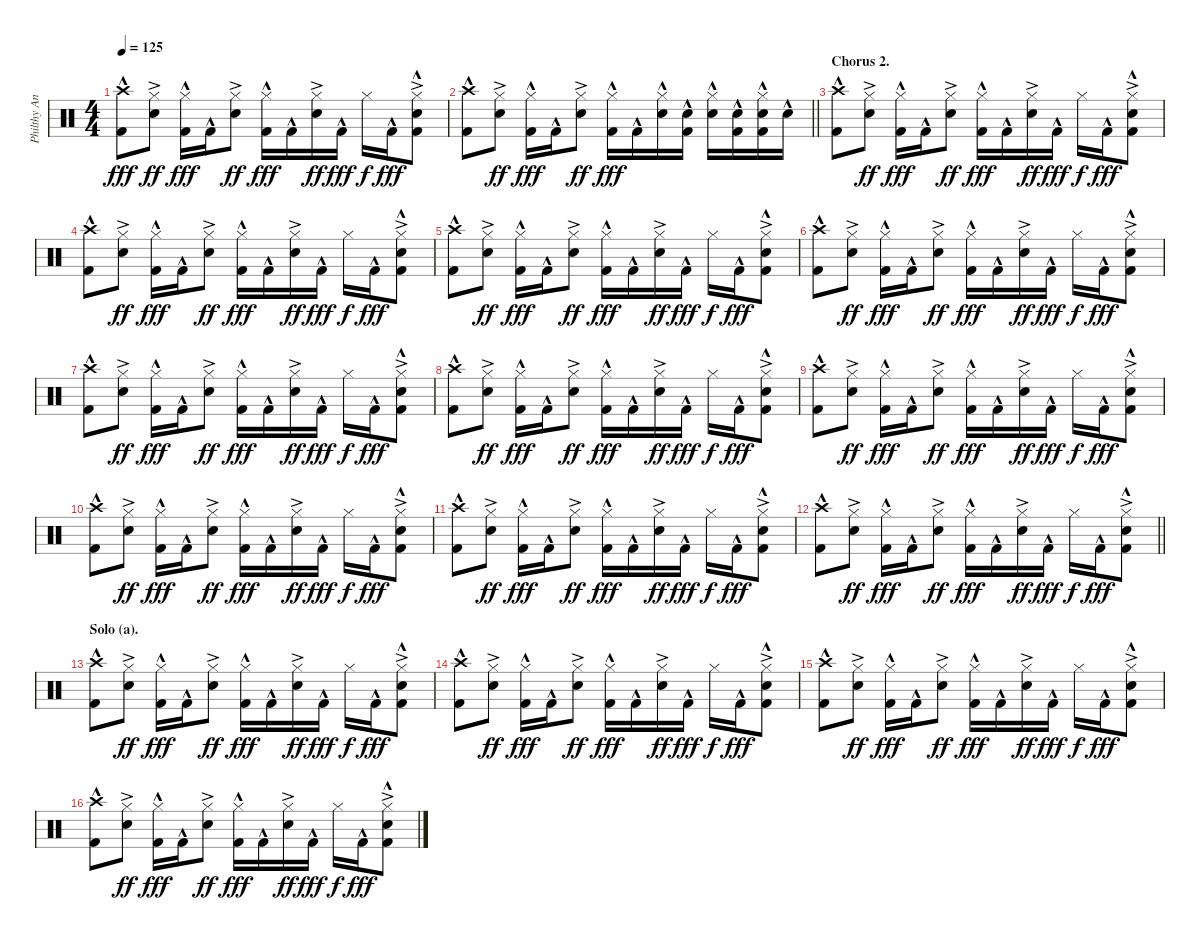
\track ("Philthy Animal Taylor" "Philthy An") {instrument percussion}
\staff {score}
\articulation defaults
\ts (4 4)
\tempo 125
\clef neutral
\ks c
("Crash high (hit)" "Kick (hit) 2"{hac}).8{dy fff} ("Hi-Hat (closed)" "Electric Snare (hit)"{ac}).8{dy ff} ("Hi-Hat (closed)" "Kick (hit) 2"{hac}).16{dy fff} "Kick (hit) 2"{hac}.16 ("Hi-Hat (closed)" "Electric Snare (hit)"{ac}).8{dy ff} ("Hi-Hat (closed)" "Kick (hit) 2"{hac}).16{dy fff} "Kick (hit) 2"{hac}.16 ("Hi-Hat (closed)" "Electric Snare (hit)"{ac}).16{dy ff} "Kick (hit) 2"{hac}.16{dy fff} "Hi-Hat (closed)".16{dy f} "Kick (hit) 2"{hac}.16{dy fff} ("Hi-Hat (closed)" "Electric Snare (hit)"{ac} "Kick (hit) 2"{hac}).8 |
\barLineRight lightlight
("Crash high (hit)" "Kick (hit) 2"{hac}).8 ("Hi-Hat (closed)" "Electric Snare (hit)"{ac}).8{dy ff} ("Hi-Hat (closed)" "Kick (hit) 2"{hac}).16{dy fff} "Kick (hit) 2"{hac}.16 ("Hi-Hat (closed)" "Electric Snare (hit)"{ac}).8{dy ff} ("Hi-Hat (closed)" "Kick (hit) 2"{hac}).16{dy fff} "Kick (hit) 2"{hac}.16 ("Hi-Hat (closed)" "Electric Snare (hit)"{hac}).16 ("Electric Snare (hit)"{hac} "Kick (hit) 2"{hac}).16 ("Hi-Hat (closed)" "Electric Snare (hit)"{hac}).16 ("Electric Snare (hit)"{hac} "Kick (hit) 2"{hac}).16 ("Hi-Hat (closed)" "Electric Snare (hit)"{hac} "Kick (hit) 2"{hac}).16 "Electric Snare (hit)"{hac}.16 |
\section ("" "Chorus 2.")
("Crash high (hit)" "Kick (hit) 2"{hac}).8 ("Hi-Hat (closed)" "Electric Snare (hit)"{ac}).8{dy ff} ("Hi-Hat (closed)" "Kick (hit) 2"{hac}).16{dy fff} "Kick (hit) 2"{hac}.16 ("Hi-Hat (closed)" "Electric Snare (hit)"{ac}).8{dy ff} ("Hi-Hat (closed)" "Kick (hit) 2"{hac}).16{dy fff} "Kick (hit) 2"{hac}.16 ("Hi-Hat (closed)" "Electric Snare (hit)"{ac}).16{dy ff} "Kick (hit) 2"{hac}.16{dy fff} "Hi-Hat (closed)".16{dy f} "Kick (hit) 2"{hac}.16{dy fff} ("Hi-Hat (closed)" "Electric Snare (hit)"{ac} "Kick (hit) 2"{hac}).8 |
("Crash high (hit)" "Kick (hit) 2"{hac}).8 ("Hi-Hat (closed)" "Electric Snare (hit)"{ac}).8{dy ff} ("Hi-Hat (closed)" "Kick (hit) 2"{hac}).16{dy fff} "Kick (hit) 2"{hac}.16 ("Hi-Hat (closed)" "Electric Snare (hit)"{ac}).8{dy ff} ("Hi-Hat (closed)" "Kick (hit) 2"{hac}).16{dy fff} "Kick (hit) 2"{hac}.16 ("Hi-Hat (closed)" "Electric Snare (hit)"{ac}).16{dy ff} "Kick (hit) 2"{hac}.16{dy fff} "Hi-Hat (closed)".16{dy f} "Kick (hit) 2"{hac}.16{dy fff} ("Hi-Hat (closed)" "Electric Snare (hit)"{ac} "Kick (hit) 2"{hac}).8 |
("Crash high (hit)" "Kick (hit) 2"{hac}).8 ("Hi-Hat (closed)" "Electric Snare (hit)"{ac}).8{dy ff} ("Hi-Hat (closed)" "Kick (hit) 2"{hac}).16{dy fff} "Kick (hit) 2"{hac}.16 ("Hi-Hat (closed)" "Electric Snare (hit)"{ac}).8{dy ff} ("Hi-Hat (closed)" "Kick (hit) 2"{hac}).16{dy fff} "Kick (hit) 2"{hac}.16 ("Hi-Hat (closed)" "Electric Snare (hit)"{ac}).16{dy ff} "Kick (hit) 2"{hac}.16{dy fff} "Hi-Hat (closed)".16{dy f} "Kick (hit) 2"{hac}.16{dy fff} ("Hi-Hat (closed)" "Electric Snare (hit)"{ac} "Kick (hit) 2"{hac}).8 |
("Crash high (hit)" "Kick (hit) 2"{hac}).8 ("Hi-Hat (closed)" "Electric Snare (hit)"{ac}).8{dy ff} ("Hi-Hat (closed)" "Kick (hit) 2"{hac}).16{dy fff} "Kick (hit) 2"{hac}.16 ("Hi-Hat (closed)" "Electric Snare (hit)"{ac}).8{dy ff} ("Hi-Hat (closed)" "Kick (hit) 2"{hac}).16{dy fff} "Kick (hit) 2"{hac}.16 ("Hi-Hat (closed)" "Electric Snare (hit)"{ac}).16{dy ff} "Kick (hit) 2"{hac}.16{dy fff} "Hi-Hat (closed)".16{dy f} "Kick (hit) 2"{hac}.16{dy fff} ("Hi-Hat (closed)" "Electric Snare (hit)"{ac} "Kick (hit) 2"{hac}).8 |
("Crash high (hit)" "Kick (hit) 2"{hac}).8 ("Hi-Hat (closed)" "Electric Snare (hit)"{ac}).8{dy ff} ("Hi-Hat (closed)" "Kick (hit) 2"{hac}).16{dy fff} "Kick (hit) 2"{hac}.16 ("Hi-Hat (closed)" "Electric Snare (hit)"{ac}).8{dy ff} ("Hi-Hat (closed)" "Kick (hit) 2"{hac}).16{dy fff} "Kick (hit) 2"{hac}.16 ("Hi-Hat (closed)" "Electric Snare (hit)"{ac}).16{dy ff} "Kick (hit) 2"{hac}.16{dy fff} "Hi-Hat (closed)".16{dy f} "Kick (hit) 2"{hac}.16{dy fff} ("Hi-Hat (closed)" "Electric Snare (hit)"{ac} "Kick (hit) 2"{hac}).8 |
("Crash high (hit)" "Kick (hit) 2"{hac}).8 ("Hi-Hat (closed)" "Electric Snare (hit)"{ac}).8{dy ff} ("Hi-Hat (closed)" "Kick (hit) 2"{hac}).16{dy fff} "Kick (hit) 2"{hac}.16 ("Hi-Hat (closed)" "Electric Snare (hit)"{ac}).8{dy ff} ("Hi-Hat (closed)" "Kick (hit) 2"{hac}).16{dy fff} "Kick (hit) 2"{hac}.16 ("Hi-Hat (closed)" "Electric Snare (hit)"{ac}).16{dy ff} "Kick (hit) 2"{hac}.16{dy fff} "Hi-Hat (closed)".16{dy f} "Kick (hit) 2"{hac}.16{dy fff} ("Hi-Hat (closed)" "Electric Snare (hit)"{ac} "Kick (hit) 2"{hac}).8 |
("Crash high (hit)" "Kick (hit) 2"{hac}).8 ("Hi-Hat (closed)" "Electric Snare (hit)"{ac}).8{dy ff} ("Hi-Hat (closed)" "Kick (hit) 2"{hac}).16{dy fff} "Kick (hit) 2"{hac}.16 ("Hi-Hat (closed)" "Electric Snare (hit)"{ac}).8{dy ff} ("Hi-Hat (closed)" "Kick (hit) 2"{hac}).16{dy fff} "Kick (hit) 2"{hac}.16 ("Hi-Hat (closed)" "Electric Snare (hit)"{ac}).16{dy ff} "Kick (hit) 2"{hac}.16{dy fff} "Hi-Hat (closed)".16{dy f} "Kick (hit) 2"{hac}.16{dy fff} ("Hi-Hat (closed)" "Electric Snare (hit)"{ac} "Kick (hit) 2"{hac}).8 |
("Crash high (hit)" "Kick (hit) 2"{hac}).8 ("Hi-Hat (closed)" "Electric Snare (hit)"{ac}).8{dy ff} ("Hi-Hat (closed)" "Kick (hit) 2"{hac}).16{dy fff} "Kick (hit) 2"{hac}.16 ("Hi-Hat (closed)" "Electric Snare (hit)"{ac}).8{dy ff} ("Hi-Hat (closed)" "Kick (hit) 2"{hac}).16{dy fff} "Kick (hit) 2"{hac}.16 ("Hi-Hat (closed)" "Electric Snare (hit)"{ac}).16{dy ff} "Kick (hit) 2"{hac}.16{dy fff} "Hi-Hat (closed)".16{dy f} "Kick (hit) 2"{hac}.16{dy fff} ("Hi-Hat (closed)" "Electric Snare (hit)"{ac} "Kick (hit) 2"{hac}).8 |
("Crash high (hit)" "Kick (hit) 2"{hac}).8 ("Hi-Hat (closed)" "Electric Snare (hit)"{ac}).8{dy ff} ("Hi-Hat (closed)" "Kick (hit) 2"{hac}).16{dy fff} "Kick (hit) 2"{hac}.16 ("Hi-Hat (closed)" "Electric Snare (hit)"{ac}).8{dy ff} ("Hi-Hat (closed)" "Kick (hit) 2"{hac}).16{dy fff} "Kick (hit) 2"{hac}.16 ("Hi-Hat (closed)" "Electric Snare (hit)"{ac}).16{dy ff} "Kick (hit) 2"{hac}.16{dy fff} "Hi-Hat (closed)".16{dy f} "Kick (hit) 2"{hac}.16{dy fff} ("Hi-Hat (closed)" "Electric Snare (hit)"{ac} "Kick (hit) 2"{hac}).8 |
\barLineRight lightlight
("Crash high (hit)" "Kick (hit) 2"{hac}).8 ("Hi-Hat (closed)" "Electric Snare (hit)"{ac}).8{dy ff} ("Hi-Hat (closed)" "Kick (hit) 2"{hac}).16{dy fff} "Kick (hit) 2"{hac}.16 ("Hi-Hat (closed)" "Electric Snare (hit)"{ac}).8{dy ff} ("Hi-Hat (closed)" "Kick (hit) 2"{hac}).16{dy fff} "Kick (hit) 2"{hac}.16 ("Hi-Hat (closed)" "Electric Snare (hit)"{ac}).16{dy ff} "Kick (hit) 2"{hac}.16{dy fff} "Hi-Hat (closed)".16{dy f} "Kick (hit) 2"{hac}.16{dy fff} ("Hi-Hat (closed)" "Electric Snare (hit)"{ac} "Kick (hit) 2"{hac}).8 |
\section ("" "Solo (a).")
("Crash high (hit)" "Kick (hit) 2"{hac}).8 ("Hi-Hat (closed)" "Electric Snare (hit)"{ac}).8{dy ff} ("Hi-Hat (closed)" "Kick (hit) 2"{hac}).16{dy fff} "Kick (hit) 2"{hac}.16 ("Hi-Hat (closed)" "Electric Snare (hit)"{ac}).8{dy ff} ("Hi-Hat (closed)" "Kick (hit) 2"{hac}).16{dy fff} "Kick (hit) 2"{hac}.16 ("Hi-Hat (closed)" "Electric Snare (hit)"{ac}).16{dy ff} "Kick (hit) 2"{hac}.16{dy fff} "Hi-Hat (closed)".16{dy f} "Kick (hit) 2"{hac}.16{dy fff} ("Hi-Hat (closed)" "Electric Snare (hit)"{ac} "Kick (hit) 2"{hac}).8 |
("Crash high (hit)" "Kick (hit) 2"{hac}).8 ("Hi-Hat (closed)" "Electric Snare (hit)"{ac}).8{dy ff} ("Hi-Hat (closed)" "Kick (hit) 2"{hac}).16{dy fff} "Kick (hit) 2"{hac}.16 ("Hi-Hat (closed)" "Electric Snare (hit)"{ac}).8{dy ff} ("Hi-Hat (closed)" "Kick (hit) 2"{hac}).16{dy fff} "Kick (hit) 2"{hac}.16 ("Hi-Hat (closed)" "Electric Snare (hit)"{ac}).16{dy ff} "Kick (hit) 2"{hac}.16{dy fff} "Hi-Hat (closed)".16{dy f} "Kick (hit) 2"{hac}.16{dy fff} ("Hi-Hat (closed)" "Electric Snare (hit)"{ac} "Kick (hit) 2"{hac}).8 |
("Crash high (hit)" "Kick (hit) 2"{hac}).8 ("Hi-Hat (closed)" "Electric Snare (hit)"{ac}).8{dy ff} ("Hi-Hat (closed)" "Kick (hit) 2"{hac}).16{dy fff} "Kick (hit) 2"{hac}.16 ("Hi-Hat (closed)" "Electric Snare (hit)"{ac}).8{dy ff} ("Hi-Hat (closed)" "Kick (hit) 2"{hac}).16{dy fff} "Kick (hit) 2"{hac}.16 ("Hi-Hat (closed)" "Electric Snare (hit)"{ac}).16{dy ff} "Kick (hit) 2"{hac}.16{dy fff} "Hi-Hat (closed)".16{dy f} "Kick (hit) 2"{hac}.16{dy fff} ("Hi-Hat (closed)" "Electric Snare (hit)"{ac} "Kick (hit) 2"{hac}).8 |
("Crash high (hit)" "Kick (hit) 2"{hac}).8 ("Hi-Hat (closed)" "Electric Snare (hit)"{ac}).8{dy ff} ("Hi-Hat (closed)" "Kick (hit) 2"{hac}).16{dy fff} "Kick (hit) 2"{hac}.16 ("Hi-Hat (closed)" "Electric Snare (hit)"{ac}).8{dy ff} ("Hi-Hat (closed)" "Kick (hit) 2"{hac}).16{dy fff} "Kick (hit) 2"{hac}.16 ("Hi-Hat (closed)" "Electric Snare (hit)"{ac}).16{dy ff} "Kick (hit) 2"{hac}.16{dy fff} "Hi-Hat (closed)".16{dy f} "Kick (hit) 2"{hac}.16{dy fff} ("Hi-Hat (closed)" "Electric Snare (hit)"{ac} "Kick (hit) 2"{hac}).8
